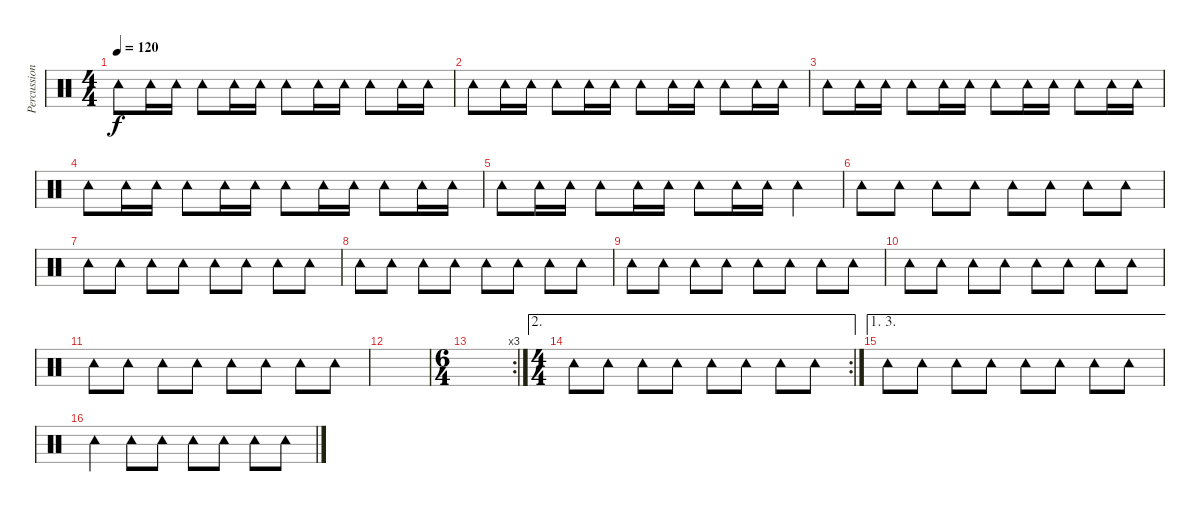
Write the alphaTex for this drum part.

\track ("Percussion" "Percussion") {instrument percussion}
\staff {score}
\articulation defaults
\ts (4 4)
\tempo 120
\clef neutral
\ks c "Tambourine (hit)".8{dy f} "Tambourine (hit)".16 "Tambourine (hit)".16 "Tambourine (hit)".8 "Tambourine (hit)".16 "Tambourine (hit)".16 "Tambourine (hit)".8 "Tambourine (hit)".16 "Tambourine (hit)".16 "Tambourine (hit)".8 "Tambourine (hit)".16 "Tambourine (hit)".16
|
"Tambourine (hit)".8 "Tambourine (hit)".16 "Tambourine (hit)".16 "Tambourine (hit)".8 "Tambourine (hit)".16 "Tambourine (hit)".16 "Tambourine (hit)".8 "Tambourine (hit)".16 "Tambourine (hit)".16 "Tambourine (hit)".8 "Tambourine (hit)".16 "Tambourine (hit)".16 |
"Tambourine (hit)".8 "Tambourine (hit)".16 "Tambourine (hit)".16 "Tambourine (hit)".8 "Tambourine (hit)".16 "Tambourine (hit)".16 "Tambourine (hit)".8 "Tambourine (hit)".16 "Tambourine (hit)".16 "Tambourine (hit)".8 "Tambourine (hit)".16 "Tambourine (hit)".16 |
"Tambourine (hit)".8 "Tambourine (hit)".16 "Tambourine (hit)".16 "Tambourine (hit)".8 "Tambourine (hit)".16 "Tambourine (hit)".16 "Tambourine (hit)".8 "Tambourine (hit)".16 "Tambourine (hit)".16 "Tambourine (hit)".8 "Tambourine (hit)".16 "Tambourine (hit)".16 |
"Tambourine (hit)".8 "Tambourine (hit)".16 "Tambourine (hit)".16 "Tambourine (hit)".8 "Tambourine (hit)".16 "Tambourine (hit)".16 "Tambourine (hit)".8 "Tambourine (hit)".16 "Tambourine (hit)".16 "Tambourine (hit)".4 |
"Tambourine (hit)".8 "Tambourine (hit)".8 "Tambourine (hit)".8 "Tambourine (hit)".8 "Tambourine (hit)".8 "Tambourine (hit)".8 "Tambourine (hit)".8 "Tambourine (hit)".8 |
"Tambourine (hit)".8 "Tambourine (hit)".8 "Tambourine (hit)".8 "Tambourine (hit)".8 "Tambourine (hit)".8 "Tambourine (hit)".8 "Tambourine (hit)".8 "Tambourine (hit)".8 |
"Tambourine (hit)".8 "Tambourine (hit)".8 "Tambourine (hit)".8 "Tambourine (hit)".8 "Tambourine (hit)".8 "Tambourine (hit)".8 "Tambourine (hit)".8 "Tambourine (hit)".8 |
"Tambourine (hit)".8 "Tambourine (hit)".8 "Tambourine (hit)".8 "Tambourine (hit)".8 "Tambourine (hit)".8 "Tambourine (hit)".8 "Tambourine (hit)".8 "Tambourine (hit)".8 |
"Tambourine (hit)".8 "Tambourine (hit)".8 "Tambourine (hit)".8 "Tambourine (hit)".8 "Tambourine (hit)".8 "Tambourine (hit)".8 "Tambourine (hit)".8 "Tambourine (hit)".8 |
"Tambourine (hit)".8 "Tambourine (hit)".8 "Tambourine (hit)".8 "Tambourine (hit)".8 "Tambourine (hit)".8 "Tambourine (hit)".8 "Tambourine (hit)".8 "Tambourine (hit)".8 |
|
\rc 3
\ts (6 4)
|
\ae 2
\rc 2
\ts (4 4)
"Tambourine (hit)".8 "Tambourine (hit)".8 "Tambourine (hit)".8 "Tambourine (hit)".8 "Tambourine (hit)".8 "Tambourine (hit)".8 "Tambourine (hit)".8 "Tambourine (hit)".8 |
\ae (1 3)
"Tambourine (hit)".8 "Tambourine (hit)".8 "Tambourine (hit)".8 "Tambourine (hit)".8 "Tambourine (hit)".8 "Tambourine (hit)".8 "Tambourine (hit)".8 "Tambourine (hit)".8 |
"Tambourine (hit)".4 "Tambourine (hit)".8 "Tambourine (hit)".8 "Tambourine (hit)".8 "Tambourine (hit)".8 "Tambourine (hit)".8 "Tambourine (hit)".8
